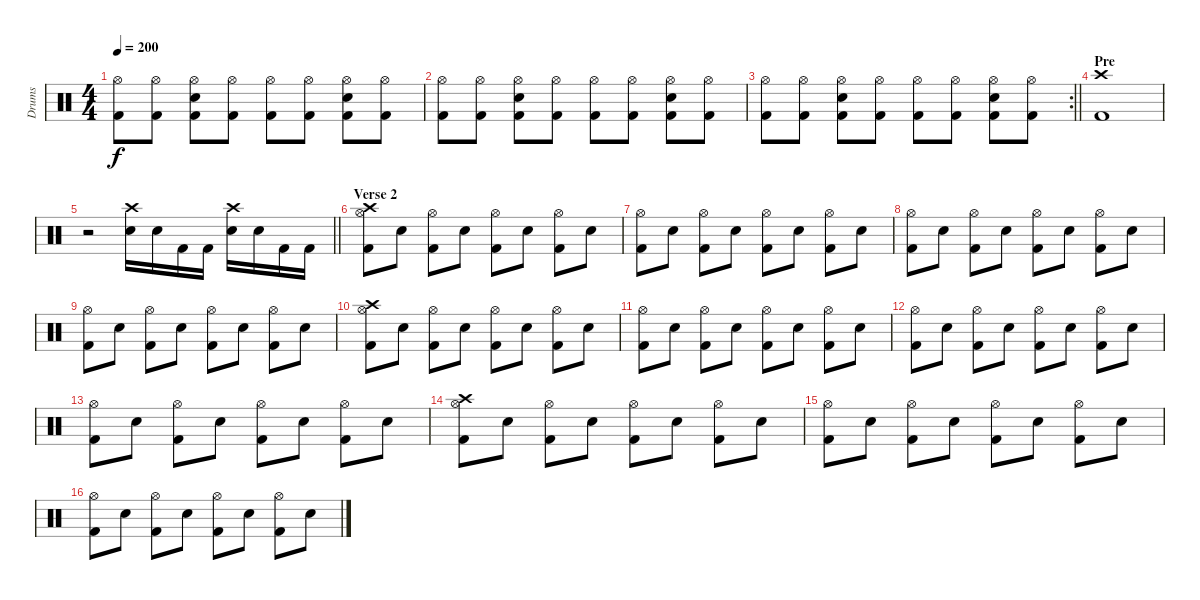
\track ("Drums" "Drums") {instrument percussion}
\staff {score}
\articulation defaults
\ts (4 4)
\tempo 200
\clef neutral
\ks c
("Hi-Hat (open)" "Kick (hit) 2").8{dy f} ("Hi-Hat (open)" "Kick (hit) 2").8 ("Hi-Hat (open)" "Snare (hit) 2" "Kick (hit) 2").8 ("Hi-Hat (open)" "Kick (hit) 2").8 ("Hi-Hat (open)" "Kick (hit) 2").8 ("Hi-Hat (open)" "Kick (hit) 2").8 ("Hi-Hat (open)" "Snare (hit) 2" "Kick (hit) 2").8 ("Hi-Hat (open)" "Kick (hit) 2").8 |
("Hi-Hat (open)" "Kick (hit) 2").8 ("Hi-Hat (open)" "Kick (hit) 2").8 ("Hi-Hat (open)" "Snare (hit) 2" "Kick (hit) 2").8 ("Hi-Hat (open)" "Kick (hit) 2").8 ("Hi-Hat (open)" "Kick (hit) 2").8 ("Hi-Hat (open)" "Kick (hit) 2").8 ("Hi-Hat (open)" "Snare (hit) 2" "Kick (hit) 2").8 ("Hi-Hat (open)" "Kick (hit) 2").8 |
\rc 2
\barLineRight lightlight
("Hi-Hat (open)" "Kick (hit) 2").8 ("Hi-Hat (open)" "Kick (hit) 2").8 ("Hi-Hat (open)" "Snare (hit) 2" "Kick (hit) 2").8 ("Hi-Hat (open)" "Kick (hit) 2").8 ("Hi-Hat (open)" "Kick (hit) 2").8 ("Hi-Hat (open)" "Kick (hit) 2").8 ("Hi-Hat (open)" "Snare (hit) 2" "Kick (hit) 2").8 ("Hi-Hat (open)" "Kick (hit) 2").8 |
\section ("" "Pre")
("Crash high (hit)" "Kick (hit) 2").1 |
\barLineRight lightlight
r.2 ("Crash high (hit)" "Snare (hit) 2").16 "Snare (hit) 2".16 "Kick (hit) 2".16 "Kick (hit) 2".16 ("Crash high (hit)" "Snare (hit) 2").16 "Snare (hit) 2".16 "Kick (hit) 2".16 "Kick (hit) 2".16 |
\section ("" "Verse 2")
("Crash high (hit)" "Hi-Hat (open)" "Kick (hit) 2").8 "Snare (hit) 2".8 ("Hi-Hat (open)" "Kick (hit) 2").8 "Snare (hit) 2".8 ("Hi-Hat (open)" "Kick (hit) 2").8 "Snare (hit) 2".8 ("Hi-Hat (open)" "Kick (hit) 2").8 "Snare (hit) 2".8 |
("Hi-Hat (open)" "Kick (hit) 2").8 "Snare (hit) 2".8 ("Hi-Hat (open)" "Kick (hit) 2").8 "Snare (hit) 2".8 ("Hi-Hat (open)" "Kick (hit) 2").8 "Snare (hit) 2".8 ("Hi-Hat (open)" "Kick (hit) 2").8 "Snare (hit) 2".8 |
("Hi-Hat (open)" "Kick (hit) 2").8 "Snare (hit) 2".8 ("Hi-Hat (open)" "Kick (hit) 2").8 "Snare (hit) 2".8 ("Hi-Hat (open)" "Kick (hit) 2").8 "Snare (hit) 2".8 ("Hi-Hat (open)" "Kick (hit) 2").8 "Snare (hit) 2".8 |
("Hi-Hat (open)" "Kick (hit) 2").8 "Snare (hit) 2".8 ("Hi-Hat (open)" "Kick (hit) 2").8 "Snare (hit) 2".8 ("Hi-Hat (open)" "Kick (hit) 2").8 "Snare (hit) 2".8 ("Hi-Hat (open)" "Kick (hit) 2").8 "Snare (hit) 2".8 |
("Crash high (hit)" "Hi-Hat (open)" "Kick (hit) 2").8 "Snare (hit) 2".8 ("Hi-Hat (open)" "Kick (hit) 2").8 "Snare (hit) 2".8 ("Hi-Hat (open)" "Kick (hit) 2").8 "Snare (hit) 2".8 ("Hi-Hat (open)" "Kick (hit) 2").8 "Snare (hit) 2".8 |
("Hi-Hat (open)" "Kick (hit) 2").8 "Snare (hit) 2".8 ("Hi-Hat (open)" "Kick (hit) 2").8 "Snare (hit) 2".8 ("Hi-Hat (open)" "Kick (hit) 2").8 "Snare (hit) 2".8 ("Hi-Hat (open)" "Kick (hit) 2").8 "Snare (hit) 2".8 |
("Hi-Hat (open)" "Kick (hit) 2").8 "Snare (hit) 2".8 ("Hi-Hat (open)" "Kick (hit) 2").8 "Snare (hit) 2".8 ("Hi-Hat (open)" "Kick (hit) 2").8 "Snare (hit) 2".8 ("Hi-Hat (open)" "Kick (hit) 2").8 "Snare (hit) 2".8 |
("Hi-Hat (open)" "Kick (hit) 2").8 "Snare (hit) 2".8 ("Hi-Hat (open)" "Kick (hit) 2").8 "Snare (hit) 2".8 ("Hi-Hat (open)" "Kick (hit) 2").8 "Snare (hit) 2".8 ("Hi-Hat (open)" "Kick (hit) 2").8 "Snare (hit) 2".8 |
("Crash high (hit)" "Hi-Hat (open)" "Kick (hit) 2").8 "Snare (hit) 2".8 ("Hi-Hat (open)" "Kick (hit) 2").8 "Snare (hit) 2".8 ("Hi-Hat (open)" "Kick (hit) 2").8 "Snare (hit) 2".8 ("Hi-Hat (open)" "Kick (hit) 2").8 "Snare (hit) 2".8 |
("Hi-Hat (open)" "Kick (hit) 2").8 "Snare (hit) 2".8 ("Hi-Hat (open)" "Kick (hit) 2").8 "Snare (hit) 2".8 ("Hi-Hat (open)" "Kick (hit) 2").8 "Snare (hit) 2".8 ("Hi-Hat (open)" "Kick (hit) 2").8 "Snare (hit) 2".8 |
("Hi-Hat (open)" "Kick (hit) 2").8 "Snare (hit) 2".8 ("Hi-Hat (open)" "Kick (hit) 2").8 "Snare (hit) 2".8 ("Hi-Hat (open)" "Kick (hit) 2").8 "Snare (hit) 2".8 ("Hi-Hat (open)" "Kick (hit) 2").8 "Snare (hit) 2".8
